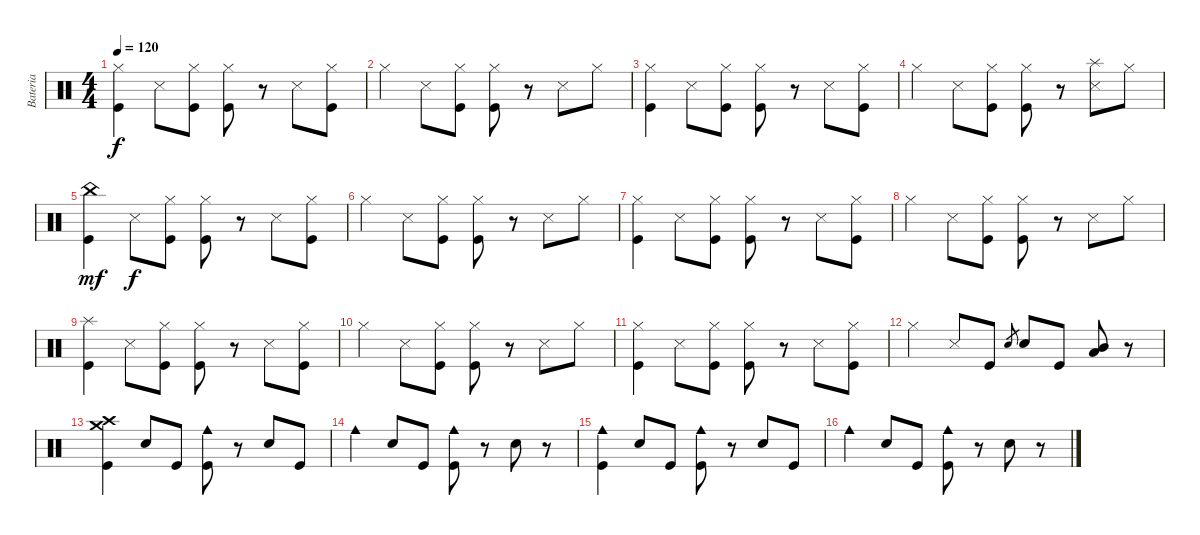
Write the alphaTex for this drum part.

\track ("Bateria" "Bateria") {instrument percussion}
\staff {score}
\articulation defaults
\ts (4 4)
\tempo 120
\clef neutral
\ks c
("Hi-Hat (closed)" "Kick (hit)").4{dy f} "Snare (side stick) 3".8 ("Hi-Hat (closed)" "Kick (hit)").8 ("Hi-Hat (closed)" "Kick (hit)").8 r.8 "Snare (side stick) 3".8 ("Hi-Hat (closed)" "Kick (hit)").8 |
"Hi-Hat (closed)".4 "Snare (side stick) 3".8 ("Hi-Hat (closed)" "Kick (hit)").8 ("Hi-Hat (closed)" "Kick (hit)").8 r.8 "Snare (side stick) 3".8 "Hi-Hat (closed)".8 |
("Hi-Hat (closed)" "Kick (hit)").4 "Snare (side stick) 3".8 ("Hi-Hat (closed)" "Kick (hit)").8 ("Hi-Hat (closed)" "Kick (hit)").8 r.8 "Snare (side stick) 3".8 ("Hi-Hat (closed)" "Kick (hit)").8 |
"Hi-Hat (closed)".4 "Snare (side stick) 3".8 ("Hi-Hat (closed)" "Kick (hit)").8 ("Hi-Hat (closed)" "Kick (hit)").8 r.8 ("Splash (hit)" "Snare (side stick) 3").8 "Hi-Hat (closed)".8 |
("China (hit)" "Kick (hit)").4{dy mf} "Snare (side stick) 3".8{dy f} ("Hi-Hat (closed)" "Kick (hit)").8 ("Hi-Hat (closed)" "Kick (hit)").8 r.8 "Snare (side stick) 3".8 ("Hi-Hat (closed)" "Kick (hit)").8 |
"Hi-Hat (closed)".4 "Snare (side stick) 3".8 ("Hi-Hat (closed)" "Kick (hit)").8 ("Hi-Hat (closed)" "Kick (hit)").8 r.8 "Snare (side stick) 3".8 "Hi-Hat (closed)".8 |
("Hi-Hat (closed)" "Kick (hit)").4 "Snare (side stick) 3".8 ("Hi-Hat (closed)" "Kick (hit)").8 ("Hi-Hat (closed)" "Kick (hit)").8 r.8 "Snare (side stick) 3".8 ("Hi-Hat (closed)" "Kick (hit)").8 |
"Hi-Hat (closed)".4 "Snare (side stick) 3".8 ("Hi-Hat (closed)" "Kick (hit)").8 ("Hi-Hat (closed)" "Kick (hit)").8 r.8 "Snare (side stick) 3".8 "Hi-Hat (closed)".8 |
("Splash (hit)" "Kick (hit)").4 "Snare (side stick) 3".8 ("Hi-Hat (closed)" "Kick (hit)").8 ("Hi-Hat (closed)" "Kick (hit)").8 r.8 "Snare (side stick) 3".8 ("Hi-Hat (closed)" "Kick (hit)").8 |
"Hi-Hat (closed)".4 "Snare (side stick) 3".8 ("Hi-Hat (closed)" "Kick (hit)").8 ("Hi-Hat (closed)" "Kick (hit)").8 r.8 "Snare (side stick) 3".8 "Hi-Hat (closed)".8 |
("Hi-Hat (closed)" "Kick (hit)").4 "Snare (side stick) 3".8 ("Hi-Hat (closed)" "Kick (hit)").8 ("Hi-Hat (closed)" "Kick (hit)").8 r.8 "Snare (side stick) 3".8 ("Hi-Hat (closed)" "Kick (hit)").8 |
"Hi-Hat (closed)".4 "Snare (side stick) 3".8 "Kick (hit)".8 "Electric Snare (hit)".8{gr} "Electric Snare (hit)".8 "Kick (hit)".8 ("Mid Tom (hit)" "Low Tom (hit)").8 r.8 |
("Crash medium (hit)" "Crash high (hit)" "Kick (hit)").4 "Electric Snare (hit)".8 "Kick (hit)".8 ("Cowbell medium (hit)" "Kick (hit)").8 r.8 "Electric Snare (hit)".8 "Kick (hit)".8 |
"Cowbell medium (hit)".4 "Electric Snare (hit)".8 "Kick (hit)".8 ("Cowbell medium (hit)" "Kick (hit)").8 r.8 "Electric Snare (hit)".8 r.8 |
("Cowbell medium (hit)" "Kick (hit)").4 "Electric Snare (hit)".8 "Kick (hit)".8 ("Cowbell medium (hit)" "Kick (hit)").8 r.8 "Electric Snare (hit)".8 "Kick (hit)".8 |
"Cowbell medium (hit)".4 "Electric Snare (hit)".8 "Kick (hit)".8 ("Cowbell medium (hit)" "Kick (hit)").8 r.8 "Electric Snare (hit)".8 r.8
